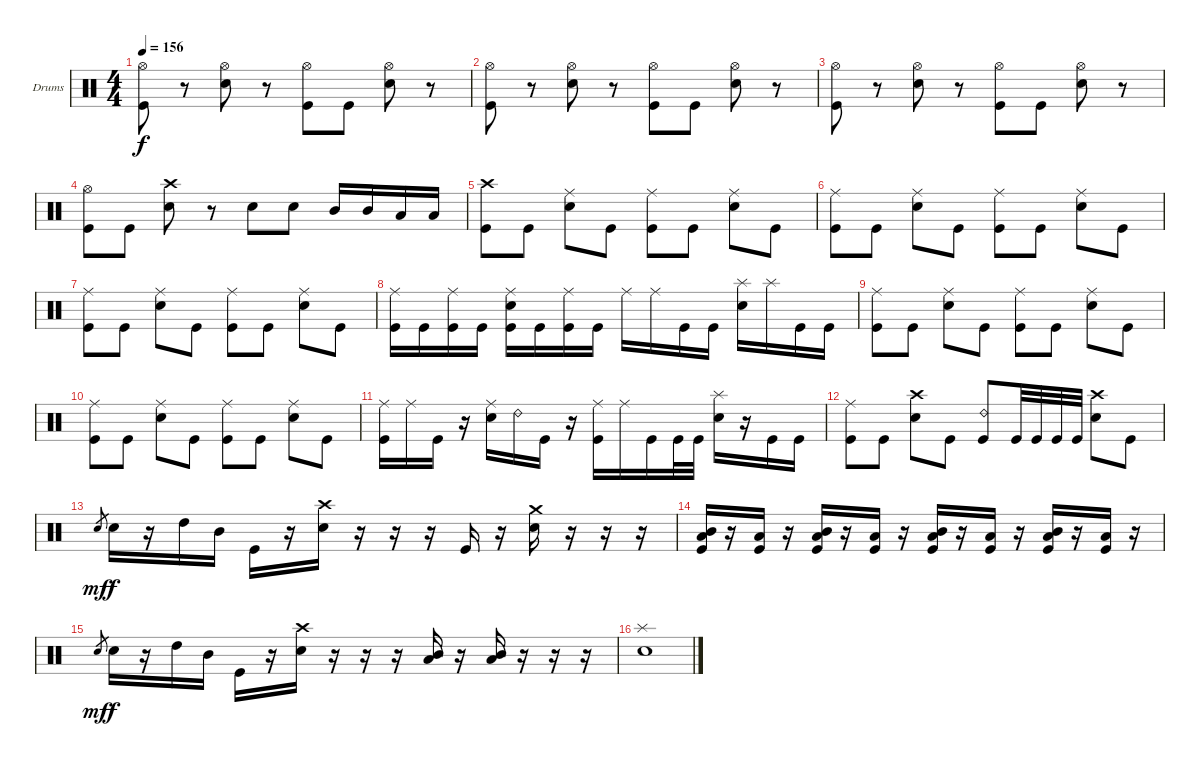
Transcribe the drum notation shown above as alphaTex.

\bracketExtendMode groupsimilarinstruments
\firstSystemTrackNameOrientation horizontal
\otherSystemsTrackNameOrientation horizontal
\track ("Drumkit" "Drums") {instrument percussion}
\staff {score}
\articulation defaults
\ts (4 4)
\tempo 156
\clef neutral
\ks c
("Hi-Hat (open)" "Kick (hit)").8{dy f} r.8 ("Hi-Hat (open)" "Snare (hit) 2").8 r.8 ("Hi-Hat (open)" "Kick (hit)").8 "Kick (hit)".8 ("Hi-Hat (open)" "Snare (hit) 2").8 r.8 |
("Hi-Hat (open)" "Kick (hit)").8 r.8 ("Hi-Hat (open)" "Snare (hit) 2").8 r.8 ("Hi-Hat (open)" "Kick (hit)").8 "Kick (hit)".8 ("Hi-Hat (open)" "Snare (hit) 2").8 r.8 |
("Hi-Hat (open)" "Kick (hit)").8 r.8 ("Hi-Hat (open)" "Snare (hit) 2").8 r.8 ("Hi-Hat (open)" "Kick (hit)").8 "Kick (hit)".8 ("Hi-Hat (open)" "Snare (hit) 2").8 r.8 |
("Hi-Hat (open)" "Kick (hit)").8 "Kick (hit)".8 ("Crash high (hit)" "Snare (hit) 2").8 r.8 "Snare (hit) 2".8 "Snare (hit) 2".8 "Mid Tom (hit)".16 "Mid Tom (hit)".16 "Low Tom (hit)".16 "Low Tom (hit)".16 |
("Crash high (hit)" "Kick (hit)").8 "Kick (hit)".8 ("Ride (middle)" "Snare (hit) 2").8 "Kick (hit)".8 ("Ride (middle)" "Kick (hit)").8 "Kick (hit)".8 ("Ride (middle)" "Snare (hit) 2").8 "Kick (hit)".8 |
("Ride (middle)" "Kick (hit)").8 "Kick (hit)".8 ("Ride (middle)" "Snare (hit) 2").8 "Kick (hit)".8 ("Ride (middle)" "Kick (hit)").8 "Kick (hit)".8 ("Ride (middle)" "Snare (hit) 2").8 "Kick (hit)".8 |
("Ride (middle)" "Kick (hit)").8 "Kick (hit)".8 ("Ride (middle)" "Snare (hit) 2").8 "Kick (hit)".8 ("Ride (middle)" "Kick (hit)").8 "Kick (hit)".8 ("Ride (middle)" "Snare (hit) 2").8 "Kick (hit)".8 |
("Ride (middle)" "Kick (hit)").16 "Kick (hit)".16 ("Ride (middle)" "Kick (hit)").16 "Kick (hit)".16 ("Ride (middle)" "Snare (hit) 2" "Kick (hit)").16 "Kick (hit)".16 ("Ride (middle)" "Kick (hit)").16 "Kick (hit)".16 "Ride (middle)".16 "Ride (middle)".16 "Kick (hit)".16 "Kick (hit)".16 ("Splash (hit)" "Snare (hit) 2").16 "Splash (hit)".16 "Kick (hit)".16 "Kick (hit)".16 |
("Ride (middle)" "Kick (hit)").8 "Kick (hit)".8 ("Ride (middle)" "Snare (hit) 2").8 "Kick (hit)".8 ("Ride (middle)" "Kick (hit)").8 "Kick (hit)".8 ("Ride (middle)" "Snare (hit) 2").8 "Kick (hit)".8 |
("Ride (middle)" "Kick (hit)").8 "Kick (hit)".8 ("Ride (middle)" "Snare (hit) 2").8 "Kick (hit)".8 ("Ride (middle)" "Kick (hit)").8 "Kick (hit)".8 ("Ride (middle)" "Snare (hit) 2").8 "Kick (hit)".8 |
("Ride (middle)" "Kick (hit)").16 "Ride (middle)".16 "Kick (hit)".16 r.16 ("Ride (middle)" "Snare (hit) 2").16 "Ride (bell) 2".16 "Kick (hit)".16 r.16 ("Ride (middle)" "Kick (hit)").16 "Ride (middle)".16 "Kick (hit)".16 "Kick (hit)".32 "Kick (hit)".32 ("Splash (hit)" "Snare (hit) 2").16 r.16 "Kick (hit)".16 "Kick (hit)".16 |
("Ride (middle)" "Kick (hit)").8 "Kick (hit)".8 ("Crash high (hit)" "Snare (hit) 2").8 "Kick (hit)".8 ("Ride (bell) 2" "Kick (hit)").8 "Kick (hit)".32 "Kick (hit)".32 "Kick (hit)".32 "Kick (hit)".32 ("Crash high (hit)" "Snare (hit) 2").8 "Kick (hit)".8 |
"Snare (hit) 2".8{gr dy mf} "Snare (hit) 2".16{dy f} r.16 "High Tom (hit)".16 "Mid Tom (hit)".16 "Kick (hit)".16 r.16 ("Crash high (hit)" "Snare (hit) 2").16 r.16 r.16 r.16 "Kick (hit)".16 r.16 ("Crash medium (hit)" "Snare (hit) 2").16 r.16 r.16 r.16 |
("Low Tom (hit)" "Mid Tom (hit)" "Kick (hit)").16 r.16 ("Low Tom (hit)" "Kick (hit)").16 r.16 ("Low Tom (hit)" "Mid Tom (hit)" "Kick (hit)").16 r.16 ("Low Tom (hit)" "Kick (hit)").16 r.16 ("Low Tom (hit)" "Mid Tom (hit)" "Kick (hit)").16 r.16 ("Low Tom (hit)" "Kick (hit)").16 r.16 ("Low Tom (hit)" "Mid Tom (hit)" "Kick (hit)").16 r.16 ("Low Tom (hit)" "Kick (hit)").16 r.16 |
"Snare (hit) 2".8{gr dy mf} "Snare (hit) 2".16{dy f} r.16 "High Tom (hit)".16 "Mid Tom (hit)".16 "Kick (hit)".16 r.16 ("Crash high (hit)" "Snare (hit) 2").16 r.16 r.16 r.16 ("Mid Tom (hit)" "Low Tom (hit)").16 r.16 ("Mid Tom (hit)" "Low Tom (hit)").16 r.16 r.16 r.16 |
("Splash (hit)" "Snare (hit) 2").1
